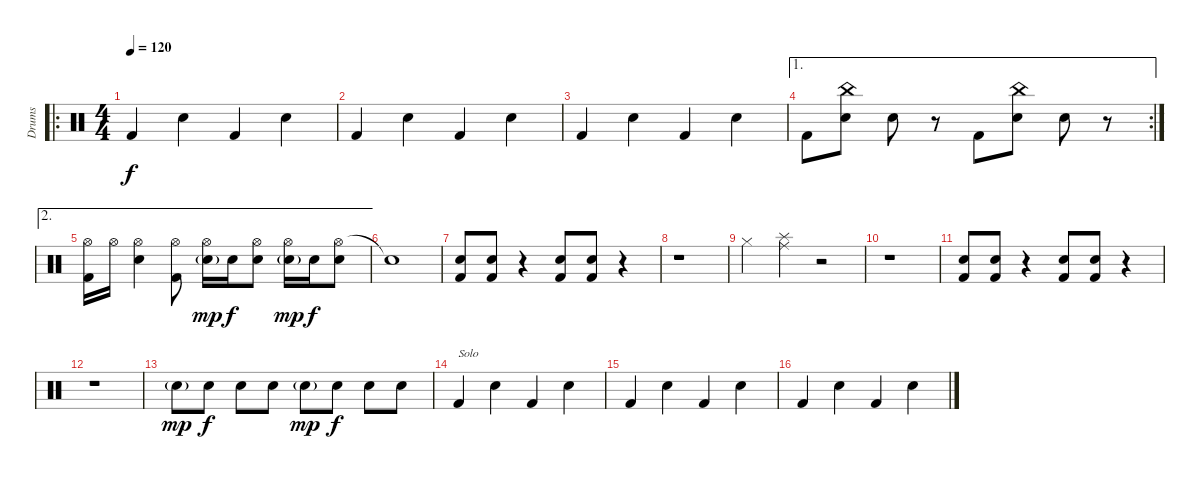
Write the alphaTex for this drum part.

\track ("Drums" "Drums") {instrument percussion}
\staff {score}
\articulation defaults
\ro
\ts (4 4)
\tempo 120
\clef neutral
\ks c "Kick (hit) 2".4{dy f} "Snare (hit) 2".4 "Kick (hit) 2".4 "Snare (hit) 2".4
|
"Kick (hit) 2".4 "Snare (hit) 2".4 "Kick (hit) 2".4 "Snare (hit) 2".4 |
"Kick (hit) 2".4 "Snare (hit) 2".4 "Kick (hit) 2".4 "Snare (hit) 2".4 |
\ae 1
\rc 2 "Kick (hit) 2".8
("China (hit)" "Snare (hit) 2").8 "Snare (hit) 2".8 r.8 "Kick (hit) 2".8 ("China (hit)" "Snare (hit) 2").8 "Snare (hit) 2".8 r.8 |
\ae 2
("Hi-Hat (open)" "Kick (hit) 2").16 "Hi-Hat (open)".16 ("Hi-Hat (open)" "Snare (hit) 2").4 ("Hi-Hat (open)" "Kick (hit) 2").8 ("Hi-Hat (open)" "Snare (hit) 2"{g}).16{dy mp} "Snare (hit) 2".16{dy f} ("Hi-Hat (open)" "Snare (hit) 2").8 ("Hi-Hat (open)" "Snare (hit) 2"{g}).16{dy mp} "Snare (hit) 2".16{dy f} ("Hi-Hat (open)" "Snare (hit) 2").8 |
"Snare (hit)"{t}.1 |
("Snare (hit) 2" "Kick (hit) 2").8 ("Snare (hit) 2" "Kick (hit) 2").8 r.4 ("Snare (hit) 2" "Kick (hit) 2").8 ("Snare (hit) 2" "Kick (hit) 2").8 r.4 |
r.1 |
"Hi-Hat (closed)".4 ("Splash (hit)" "Ride (middle)").4 r.2 |
r.1 |
("Snare (hit) 2" "Kick (hit) 2").8 ("Snare (hit) 2" "Kick (hit) 2").8 r.4 ("Snare (hit) 2" "Kick (hit) 2").8 ("Snare (hit) 2" "Kick (hit) 2").8 r.4 |
r.1 |
"Snare (hit) 2"{g}.8{dy mp} "Snare (hit) 2".8{dy f} "Snare (hit) 2".8 "Snare (hit) 2".8 "Snare (hit) 2"{g}.8{dy mp} "Snare (hit) 2".8{dy f} "Snare (hit) 2".8 "Snare (hit) 2".8 |
"Kick (hit) 2".4{txt "Solo"} "Snare (hit) 2".4 "Kick (hit) 2".4 "Snare (hit) 2".4 |
"Kick (hit) 2".4 "Snare (hit) 2".4 "Kick (hit) 2".4 "Snare (hit) 2".4 |
"Kick (hit) 2".4 "Snare (hit) 2".4 "Kick (hit) 2".4 "Snare (hit) 2".4
